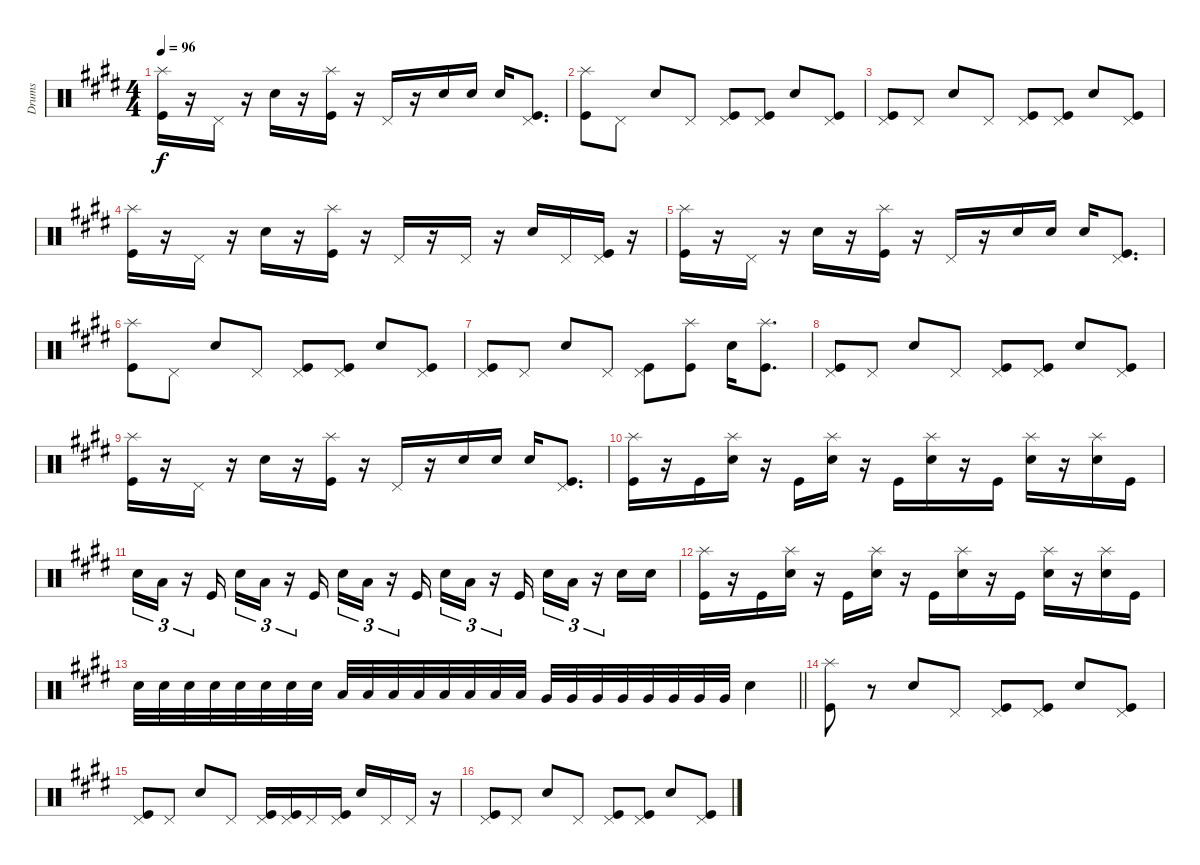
\track ("Drums" "Drums") {instrument percussion}
\staff {score}
\articulation defaults
\ts (4 4)
\tempo 96
\clef neutral
\ks e
("Kick (hit)" "Splash (hit)").16{dy f} r.16 "Pedal Hi-Hat (hit)".16 r.16 "Electric Snare (hit)".16 r.16 ("Kick (hit)" "Splash (hit)").16 r.16 "Pedal Hi-Hat (hit)".16 r.16 "Electric Snare (hit)".16 "Electric Snare (hit)".16 "Electric Snare (hit)".16 ("Kick (hit)" "Pedal Hi-Hat (hit)").8{d} |
("Kick (hit)" "Splash (hit)").8 "Pedal Hi-Hat (hit)".8 "Electric Snare (hit)".8 "Pedal Hi-Hat (hit)".8 ("Kick (hit)" "Pedal Hi-Hat (hit)").8 ("Kick (hit)" "Pedal Hi-Hat (hit)").8 "Electric Snare (hit)".8 ("Kick (hit)" "Pedal Hi-Hat (hit)").8 |
("Kick (hit)" "Pedal Hi-Hat (hit)").8 "Pedal Hi-Hat (hit)".8 "Electric Snare (hit)".8 "Pedal Hi-Hat (hit)".8 ("Kick (hit)" "Pedal Hi-Hat (hit)").8 ("Kick (hit)" "Pedal Hi-Hat (hit)").8 "Electric Snare (hit)".8 ("Kick (hit)" "Pedal Hi-Hat (hit)").8 |
("Kick (hit)" "Splash (hit)").16 r.16 "Pedal Hi-Hat (hit)".16 r.16 "Electric Snare (hit)".16 r.16 ("Kick (hit)" "Splash (hit)").16 r.16 "Pedal Hi-Hat (hit)".16 r.16 "Pedal Hi-Hat (hit)".16 r.16 "Electric Snare (hit)".16 "Pedal Hi-Hat (hit)".16 ("Kick (hit)" "Pedal Hi-Hat (hit)").16 r.16 |
("Kick (hit)" "Splash (hit)").16 r.16 "Pedal Hi-Hat (hit)".16 r.16 "Electric Snare (hit)".16 r.16 ("Kick (hit)" "Splash (hit)").16 r.16 "Pedal Hi-Hat (hit)".16 r.16 "Electric Snare (hit)".16 "Electric Snare (hit)".16 "Electric Snare (hit)".16 ("Kick (hit)" "Pedal Hi-Hat (hit)").8{d} |
("Kick (hit)" "Splash (hit)").8 "Pedal Hi-Hat (hit)".8 "Electric Snare (hit)".8 "Pedal Hi-Hat (hit)".8 ("Kick (hit)" "Pedal Hi-Hat (hit)").8 ("Kick (hit)" "Pedal Hi-Hat (hit)").8 "Electric Snare (hit)".8 ("Kick (hit)" "Pedal Hi-Hat (hit)").8 |
("Kick (hit)" "Pedal Hi-Hat (hit)").8 "Pedal Hi-Hat (hit)".8 "Electric Snare (hit)".8 "Pedal Hi-Hat (hit)".8 ("Kick (hit)" "Pedal Hi-Hat (hit)").8 ("Kick (hit)" "Splash (hit)").8 "Electric Snare (hit)".16 ("Kick (hit)" "Splash (hit)").8{d} |
("Kick (hit)" "Pedal Hi-Hat (hit)").8 "Pedal Hi-Hat (hit)".8 "Electric Snare (hit)".8 "Pedal Hi-Hat (hit)".8 ("Kick (hit)" "Pedal Hi-Hat (hit)").8 ("Kick (hit)" "Pedal Hi-Hat (hit)").8 "Electric Snare (hit)".8 ("Kick (hit)" "Pedal Hi-Hat (hit)").8 |
("Kick (hit)" "Splash (hit)").16 r.16 "Pedal Hi-Hat (hit)".16 r.16 "Electric Snare (hit)".16 r.16 ("Kick (hit)" "Splash (hit)").16 r.16 "Pedal Hi-Hat (hit)".16 r.16 "Electric Snare (hit)".16 "Electric Snare (hit)".16 "Electric Snare (hit)".16 ("Kick (hit)" "Pedal Hi-Hat (hit)").8{d} |
("Kick (hit)" "Splash (hit)").16 r.16 "Kick (hit)".16 ("Electric Snare (hit)" "Splash (hit)").16 r.16 "Kick (hit)".16 ("Electric Snare (hit)" "Splash (hit)").16 r.16 "Kick (hit)".16 ("Electric Snare (hit)" "Splash (hit)").16 r.16 "Kick (hit)".16 ("Electric Snare (hit)" "Splash (hit)").16 r.16 ("Electric Snare (hit)" "Splash (hit)").16 "Kick (hit)".16 |
"Electric Snare (hit)".16{tu (3 2)} "Low Tom (hit)".16{tu (3 2)} r.16{tu (3 2)} "Kick (hit)".16{beam splitsecondary} "Electric Snare (hit)".16{tu (3 2)} "Low Tom (hit)".16{tu (3 2)} r.16{tu (3 2)} "Kick (hit)".16{beam splitsecondary} "Electric Snare (hit)".16{tu (3 2)} "Low Tom (hit)".16{tu (3 2)} r.16{tu (3 2)} "Kick (hit)".16{beam splitsecondary} "Electric Snare (hit)".16{tu (3 2)} "Low Tom (hit)".16{tu (3 2)} r.16{tu (3 2)} "Kick (hit)".16 "Electric Snare (hit)".16{tu (3 2)} "Low Tom (hit)".16{tu (3 2)} r.16{tu (3 2)} "Electric Snare (hit)".16 "Electric Snare (hit)".16 |
("Kick (hit)" "Splash (hit)").16 r.16 "Kick (hit)".16 ("Electric Snare (hit)" "Splash (hit)").16 r.16 "Kick (hit)".16 ("Electric Snare (hit)" "Splash (hit)").16 r.16 "Kick (hit)".16 ("Electric Snare (hit)" "Splash (hit)").16 r.16 "Kick (hit)".16 ("Electric Snare (hit)" "Splash (hit)").16 r.16 ("Electric Snare (hit)" "Splash (hit)").16 "Kick (hit)".16 |
\barLineRight lightlight "Electric Snare (hit)".32 "Electric Snare (hit)".32 "Electric Snare (hit)".32 "Electric Snare (hit)".32 "Electric Snare (hit)".32 "Electric Snare (hit)".32 "Electric Snare (hit)".32 "Electric Snare (hit)".32 "Low Tom (hit)".32 "Low Tom (hit)".32 "Low Tom (hit)".32 "Low Tom (hit)".32 "Low Tom (hit)".32 "Low Tom (hit)".32 "Low Tom (hit)".32 "Low Tom (hit)".32 "Very Low Tom (hit)".32 "Very Low Tom (hit)".32 "Very Low Tom (hit)".32 "Very Low Tom (hit)".32 "Very Low Tom (hit)".32 "Very Low Tom (hit)".32 "Very Low Tom (hit)".32 "Very Low Tom (hit)".32 "Electric Snare (hit)".4
|
("Kick (hit)" "Splash (hit)").8 r.8 "Electric Snare (hit)".8 "Pedal Hi-Hat (hit)".8 ("Kick (hit)" "Pedal Hi-Hat (hit)").8 ("Kick (hit)" "Pedal Hi-Hat (hit)").8 "Electric Snare (hit)".8 ("Kick (hit)" "Pedal Hi-Hat (hit)").8 |
("Kick (hit)" "Pedal Hi-Hat (hit)").8 "Pedal Hi-Hat (hit)".8 "Electric Snare (hit)".8 "Pedal Hi-Hat (hit)".8 ("Kick (hit)" "Pedal Hi-Hat (hit)").16 ("Kick (hit)" "Pedal Hi-Hat (hit)").16 "Pedal Hi-Hat (hit)".16 ("Kick (hit)" "Pedal Hi-Hat (hit)").16 "Electric Snare (hit)".16 "Pedal Hi-Hat (hit)".16 "Pedal Hi-Hat (hit)".16 r.16 |
("Kick (hit)" "Pedal Hi-Hat (hit)").8 "Pedal Hi-Hat (hit)".8 "Electric Snare (hit)".8 "Pedal Hi-Hat (hit)".8 ("Kick (hit)" "Pedal Hi-Hat (hit)").8 ("Kick (hit)" "Pedal Hi-Hat (hit)").8 "Electric Snare (hit)".8 ("Kick (hit)" "Pedal Hi-Hat (hit)").8
